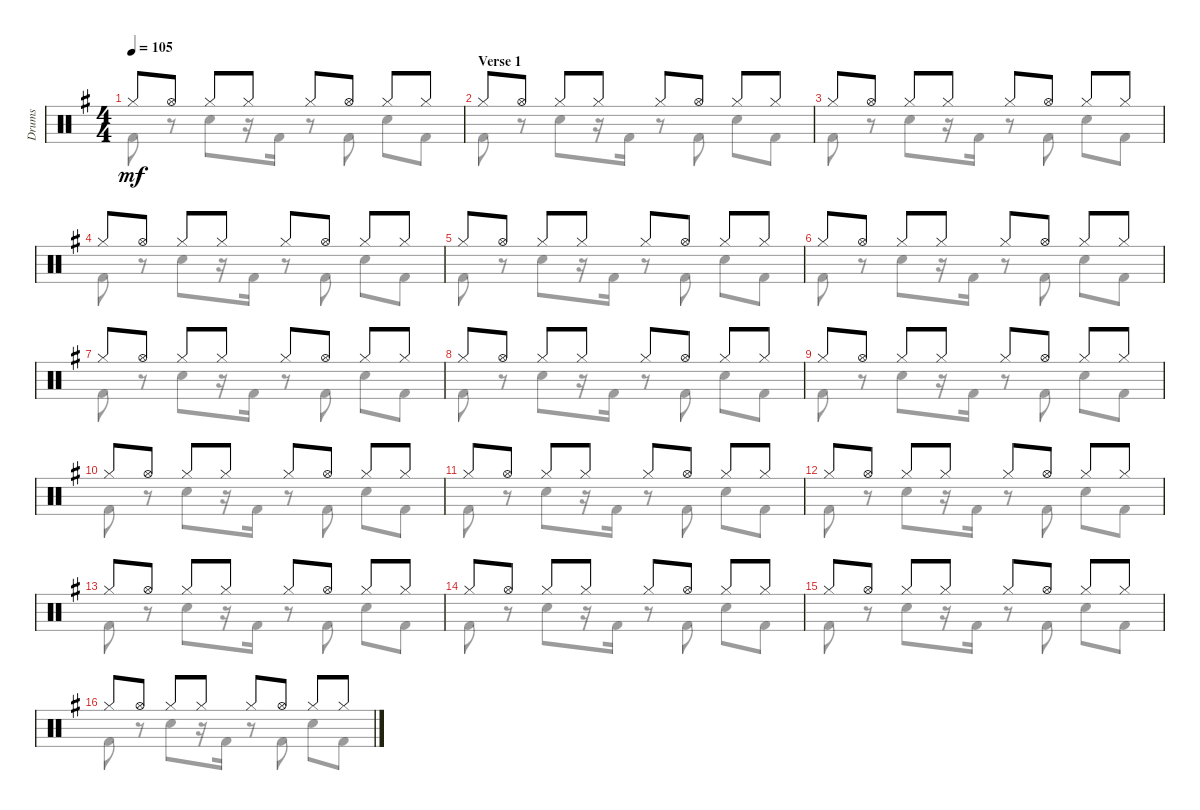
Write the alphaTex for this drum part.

\track ("Drums" "Drums") {instrument percussion}
\staff {score}
\articulation defaults
\voice
\ts (4 4)
\tempo 105
\clef neutral
\ks eminor "Hi-Hat (closed)".8{dy mf} "Hi-Hat (open)".8 "Hi-Hat (closed)".8 "Hi-Hat (closed)".8 "Hi-Hat (closed)".8 "Hi-Hat (open)".8 "Hi-Hat (closed)".8 "Hi-Hat (closed)".8
|
\section ("" "Verse 1")
"Hi-Hat (closed)".8 "Hi-Hat (open)".8 "Hi-Hat (closed)".8 "Hi-Hat (closed)".8 "Hi-Hat (closed)".8 "Hi-Hat (open)".8 "Hi-Hat (closed)".8 "Hi-Hat (closed)".8 |
"Hi-Hat (closed)".8 "Hi-Hat (open)".8 "Hi-Hat (closed)".8 "Hi-Hat (closed)".8 "Hi-Hat (closed)".8 "Hi-Hat (open)".8 "Hi-Hat (closed)".8 "Hi-Hat (closed)".8 |
"Hi-Hat (closed)".8 "Hi-Hat (open)".8 "Hi-Hat (closed)".8 "Hi-Hat (closed)".8 "Hi-Hat (closed)".8 "Hi-Hat (open)".8 "Hi-Hat (closed)".8 "Hi-Hat (closed)".8 |
"Hi-Hat (closed)".8 "Hi-Hat (open)".8 "Hi-Hat (closed)".8 "Hi-Hat (closed)".8 "Hi-Hat (closed)".8 "Hi-Hat (open)".8 "Hi-Hat (closed)".8 "Hi-Hat (closed)".8 |
"Hi-Hat (closed)".8 "Hi-Hat (open)".8 "Hi-Hat (closed)".8 "Hi-Hat (closed)".8 "Hi-Hat (closed)".8 "Hi-Hat (open)".8 "Hi-Hat (closed)".8 "Hi-Hat (closed)".8 |
"Hi-Hat (closed)".8 "Hi-Hat (open)".8 "Hi-Hat (closed)".8 "Hi-Hat (closed)".8 "Hi-Hat (closed)".8 "Hi-Hat (open)".8 "Hi-Hat (closed)".8 "Hi-Hat (closed)".8 |
"Hi-Hat (closed)".8 "Hi-Hat (open)".8 "Hi-Hat (closed)".8 "Hi-Hat (closed)".8 "Hi-Hat (closed)".8 "Hi-Hat (open)".8 "Hi-Hat (closed)".8 "Hi-Hat (closed)".8 |
"Hi-Hat (closed)".8 "Hi-Hat (open)".8 "Hi-Hat (closed)".8 "Hi-Hat (closed)".8 "Hi-Hat (closed)".8 "Hi-Hat (open)".8 "Hi-Hat (closed)".8 "Hi-Hat (closed)".8 |
"Hi-Hat (closed)".8 "Hi-Hat (open)".8 "Hi-Hat (closed)".8 "Hi-Hat (closed)".8 "Hi-Hat (closed)".8 "Hi-Hat (open)".8 "Hi-Hat (closed)".8 "Hi-Hat (closed)".8 |
"Hi-Hat (closed)".8 "Hi-Hat (open)".8 "Hi-Hat (closed)".8 "Hi-Hat (closed)".8 "Hi-Hat (closed)".8 "Hi-Hat (open)".8 "Hi-Hat (closed)".8 "Hi-Hat (closed)".8 |
"Hi-Hat (closed)".8 "Hi-Hat (open)".8 "Hi-Hat (closed)".8 "Hi-Hat (closed)".8 "Hi-Hat (closed)".8 "Hi-Hat (open)".8 "Hi-Hat (closed)".8 "Hi-Hat (closed)".8 |
"Hi-Hat (closed)".8 "Hi-Hat (open)".8 "Hi-Hat (closed)".8 "Hi-Hat (closed)".8 "Hi-Hat (closed)".8 "Hi-Hat (open)".8 "Hi-Hat (closed)".8 "Hi-Hat (closed)".8 |
"Hi-Hat (closed)".8 "Hi-Hat (open)".8 "Hi-Hat (closed)".8 "Hi-Hat (closed)".8 "Hi-Hat (closed)".8 "Hi-Hat (open)".8 "Hi-Hat (closed)".8 "Hi-Hat (closed)".8 |
"Hi-Hat (closed)".8 "Hi-Hat (open)".8 "Hi-Hat (closed)".8 "Hi-Hat (closed)".8 "Hi-Hat (closed)".8 "Hi-Hat (open)".8 "Hi-Hat (closed)".8 "Hi-Hat (closed)".8 |
"Hi-Hat (closed)".8 "Hi-Hat (open)".8 "Hi-Hat (closed)".8 "Hi-Hat (closed)".8 "Hi-Hat (closed)".8 "Hi-Hat (open)".8 "Hi-Hat (closed)".8 "Hi-Hat (closed)".8
\voice
\clef neutral
\ottava regular
\simile none
\ks eminor "Kick (hit) 2".8{dy mf}
r.8 "Snare (hit) 2".8 r.16 "Kick (hit) 2".16 r.8 "Kick (hit) 2".8 "Snare (hit) 2".8 "Kick (hit) 2".8 |
"Kick (hit) 2".8 r.8 "Snare (hit) 2".8 r.16 "Kick (hit) 2".16 r.8 "Kick (hit) 2".8 "Snare (hit) 2".8 "Kick (hit) 2".8 |
"Kick (hit) 2".8 r.8 "Snare (hit) 2".8 r.16 "Kick (hit) 2".16 r.8 "Kick (hit) 2".8 "Snare (hit) 2".8 "Kick (hit) 2".8 |
"Kick (hit) 2".8 r.8 "Snare (hit) 2".8 r.16 "Kick (hit) 2".16 r.8 "Kick (hit) 2".8 "Snare (hit) 2".8 "Kick (hit) 2".8 |
"Kick (hit) 2".8 r.8 "Snare (hit) 2".8 r.16 "Kick (hit) 2".16 r.8 "Kick (hit) 2".8 "Snare (hit) 2".8 "Kick (hit) 2".8 |
"Kick (hit) 2".8 r.8 "Snare (hit) 2".8 r.16 "Kick (hit) 2".16 r.8 "Kick (hit) 2".8 "Snare (hit) 2".8 "Kick (hit) 2".8 |
"Kick (hit) 2".8 r.8 "Snare (hit) 2".8 r.16 "Kick (hit) 2".16 r.8 "Kick (hit) 2".8 "Snare (hit) 2".8 "Kick (hit) 2".8 |
"Kick (hit) 2".8 r.8 "Snare (hit) 2".8 r.16 "Kick (hit) 2".16 r.8 "Kick (hit) 2".8 "Snare (hit) 2".8 "Kick (hit) 2".8 |
"Kick (hit) 2".8 r.8 "Snare (hit) 2".8 r.16 "Kick (hit) 2".16 r.8 "Kick (hit) 2".8 "Snare (hit) 2".8 "Kick (hit) 2".8 |
"Kick (hit) 2".8 r.8 "Snare (hit) 2".8 r.16 "Kick (hit) 2".16 r.8 "Kick (hit) 2".8 "Snare (hit) 2".8 "Kick (hit) 2".8 |
"Kick (hit) 2".8 r.8 "Snare (hit) 2".8 r.16 "Kick (hit) 2".16 r.8 "Kick (hit) 2".8 "Snare (hit) 2".8 "Kick (hit) 2".8 |
"Kick (hit) 2".8 r.8 "Snare (hit) 2".8 r.16 "Kick (hit) 2".16 r.8 "Kick (hit) 2".8 "Snare (hit) 2".8 "Kick (hit) 2".8 |
"Kick (hit) 2".8 r.8 "Snare (hit) 2".8 r.16 "Kick (hit) 2".16 r.8 "Kick (hit) 2".8 "Snare (hit) 2".8 "Kick (hit) 2".8 |
"Kick (hit) 2".8 r.8 "Snare (hit) 2".8 r.16 "Kick (hit) 2".16 r.8 "Kick (hit) 2".8 "Snare (hit) 2".8 "Kick (hit) 2".8 |
"Kick (hit) 2".8 r.8 "Snare (hit) 2".8 r.16 "Kick (hit) 2".16 r.8 "Kick (hit) 2".8 "Snare (hit) 2".8 "Kick (hit) 2".8 |
"Kick (hit) 2".8 r.8 "Snare (hit) 2".8 r.16 "Kick (hit) 2".16 r.8 "Kick (hit) 2".8 "Snare (hit) 2".8 "Kick (hit) 2".8
